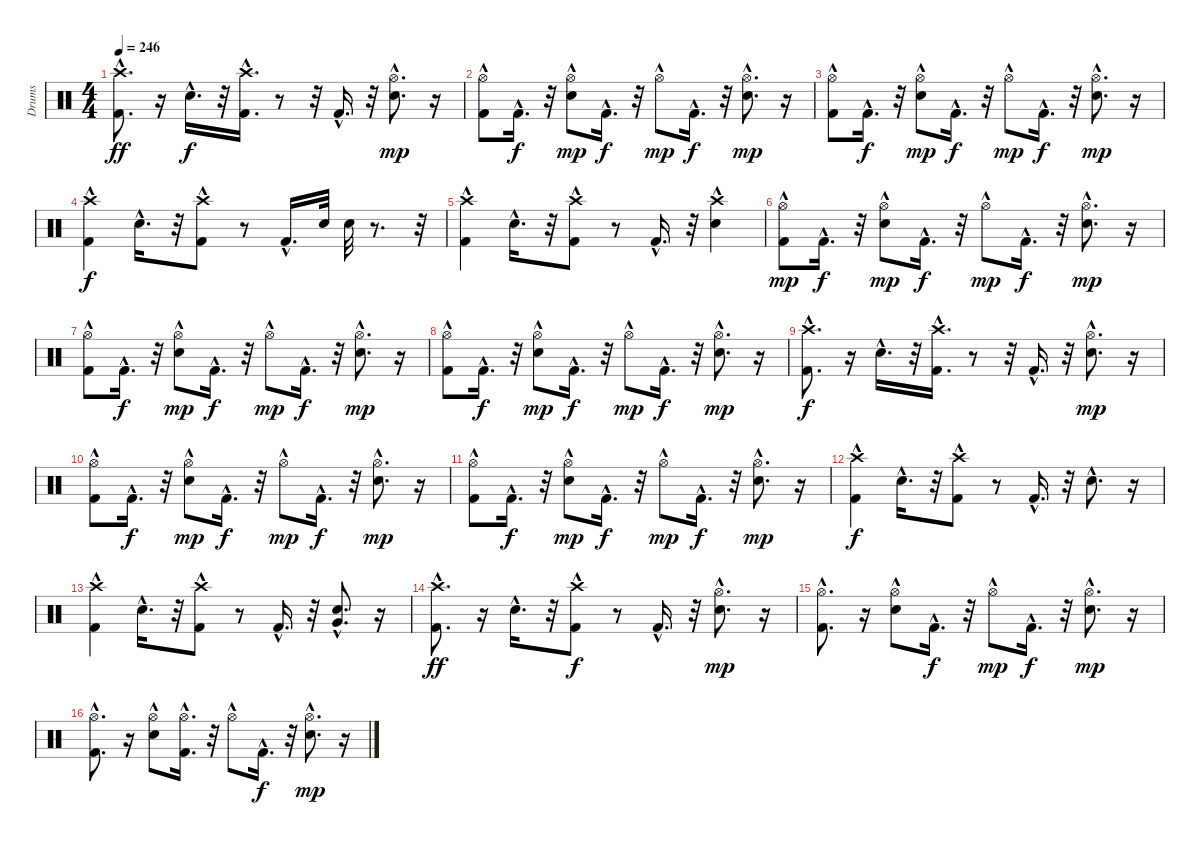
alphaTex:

\track ("Drums" "Drums") {instrument percussion}
\staff {score}
\articulation defaults
\ts (4 4)
\tempo 246
\clef neutral
\ks c
("Kick (hit) 2"{hac} "Crash high (hit)"{hac}).8{d dy ff} r.16 "Electric Snare (hit)"{hac}.16{d dy f} r.32 ("Kick (hit) 2"{hac} "Crash high (hit)"{hac}).16{d} r.8 r.32 "Kick (hit) 2"{hac}.16{d} r.32 ("Electric Snare (hit)"{hac} "Hi-Hat (open)"{hac}).8{d dy mp} r.16 |
("Kick (hit) 2"{hac} "Hi-Hat (open)"{hac}).8 "Kick (hit) 2"{hac}.16{d dy f} r.32 ("Electric Snare (hit)"{hac} "Hi-Hat (open)"{hac}).8{dy mp} "Kick (hit) 2"{hac}.16{d dy f} r.32 "Hi-Hat (open)"{hac}.8{dy mp} "Kick (hit) 2"{hac}.16{d dy f} r.32 ("Electric Snare (hit)"{hac} "Hi-Hat (open)"{hac}).8{d dy mp} r.16 |
("Kick (hit) 2"{hac} "Hi-Hat (open)"{hac}).8 "Kick (hit) 2"{hac}.16{d dy f} r.32 ("Electric Snare (hit)"{hac} "Hi-Hat (open)"{hac}).8{dy mp} "Kick (hit) 2"{hac}.16{d dy f} r.32 "Hi-Hat (open)"{hac}.8{dy mp} "Kick (hit) 2"{hac}.16{d dy f} r.32 ("Electric Snare (hit)"{hac} "Hi-Hat (open)"{hac}).8{d dy mp} r.16 |
("Kick (hit) 2"{hac} "Crash high (hit)").4{dy f} "Electric Snare (hit)"{hac}.16{d} r.32 ("Kick (hit) 2"{hac} "Crash high (hit)").8 r.8 "Kick (hit) 2"{hac}.16{d} "Electric Snare (hit)".32 "Electric Snare (hit)".32 r.8{d} r.32 |
("Kick (hit) 2"{hac} "Crash high (hit)").4 "Electric Snare (hit)"{hac}.16{d} r.32 ("Kick (hit) 2"{hac} "Crash high (hit)").8 r.8 "Kick (hit) 2"{hac}.16{d} r.32 ("Electric Snare (hit)"{hac} "Crash high (hit)").4 |
("Kick (hit) 2"{hac} "Hi-Hat (open)"{hac}).8{dy mp} "Kick (hit) 2"{hac}.16{d dy f} r.32 ("Electric Snare (hit)"{hac} "Hi-Hat (open)"{hac}).8{dy mp} "Kick (hit) 2"{hac}.16{d dy f} r.32 "Hi-Hat (open)"{hac}.8{dy mp} "Kick (hit) 2"{hac}.16{d dy f} r.32 ("Electric Snare (hit)"{hac} "Hi-Hat (open)"{hac}).8{d dy mp} r.16 |
("Kick (hit) 2"{hac} "Hi-Hat (open)"{hac}).8 "Kick (hit) 2"{hac}.16{d dy f} r.32 ("Electric Snare (hit)"{hac} "Hi-Hat (open)"{hac}).8{dy mp} "Kick (hit) 2"{hac}.16{d dy f} r.32 "Hi-Hat (open)"{hac}.8{dy mp} "Kick (hit) 2"{hac}.16{d dy f} r.32 ("Electric Snare (hit)"{hac} "Hi-Hat (open)"{hac}).8{d dy mp} r.16 |
("Kick (hit) 2"{hac} "Hi-Hat (open)"{hac}).8 "Kick (hit) 2"{hac}.16{d dy f} r.32 ("Electric Snare (hit)"{hac} "Hi-Hat (open)"{hac}).8{dy mp} "Kick (hit) 2"{hac}.16{d dy f} r.32 "Hi-Hat (open)"{hac}.8{dy mp} "Kick (hit) 2"{hac}.16{d dy f} r.32 ("Electric Snare (hit)"{hac} "Hi-Hat (open)"{hac}).8{d dy mp} r.16 |
("Kick (hit) 2"{hac} "Crash high (hit)"{hac}).8{d dy f} r.16 "Electric Snare (hit)"{hac}.16{d} r.32 ("Kick (hit) 2"{hac} "Crash high (hit)"{hac}).16{d} r.8 r.32 "Kick (hit) 2"{hac}.16{d} r.32 ("Electric Snare (hit)"{hac} "Hi-Hat (open)"{hac}).8{d dy mp} r.16 |
("Kick (hit) 2"{hac} "Hi-Hat (open)"{hac}).8 "Kick (hit) 2"{hac}.16{d dy f} r.32 ("Electric Snare (hit)"{hac} "Hi-Hat (open)"{hac}).8{dy mp} "Kick (hit) 2"{hac}.16{d dy f} r.32 "Hi-Hat (open)"{hac}.8{dy mp} "Kick (hit) 2"{hac}.16{d dy f} r.32 ("Electric Snare (hit)"{hac} "Hi-Hat (open)"{hac}).8{d dy mp} r.16 |
("Kick (hit) 2"{hac} "Hi-Hat (open)"{hac}).8 "Kick (hit) 2"{hac}.16{d dy f} r.32 ("Electric Snare (hit)"{hac} "Hi-Hat (open)"{hac}).8{dy mp} "Kick (hit) 2"{hac}.16{d dy f} r.32 "Hi-Hat (open)"{hac}.8{dy mp} "Kick (hit) 2"{hac}.16{d dy f} r.32 ("Electric Snare (hit)"{hac} "Hi-Hat (open)"{hac}).8{d dy mp} r.16 |
("Kick (hit) 2"{hac} "Crash high (hit)").4{dy f} "Electric Snare (hit)"{hac}.16{d} r.32 ("Kick (hit) 2"{hac} "Crash high (hit)").8 r.8 "Kick (hit) 2"{hac}.16{d} r.32 "Electric Snare (hit)"{hac}.8{d} r.16 |
("Kick (hit) 2"{hac} "Crash high (hit)").4 "Electric Snare (hit)"{hac}.16{d} r.32 ("Kick (hit) 2"{hac} "Crash high (hit)").8 r.8 "Kick (hit) 2"{hac}.16{d} r.32 ("Electric Snare (hit)"{hac} "Very Low Tom (hit)"{hac}).8{d} r.16 |
("Kick (hit) 2"{hac} "Crash high (hit)"{hac}).8{d dy ff} r.16 "Electric Snare (hit)"{hac}.16{d} r.32 ("Kick (hit) 2"{hac} "Crash high (hit)").8{dy f} r.8 "Kick (hit) 2"{hac}.16{d} r.32 ("Electric Snare (hit)"{hac} "Hi-Hat (open)"{hac}).8{d dy mp} r.16 |
("Kick (hit) 2"{hac} "Hi-Hat (open)"{hac}).8{d} r.16 ("Electric Snare (hit)"{hac} "Hi-Hat (open)"{hac}).8 "Kick (hit) 2"{hac}.16{d dy f} r.32 "Hi-Hat (open)"{hac}.8{dy mp} "Kick (hit) 2"{hac}.16{d dy f} r.32 ("Electric Snare (hit)"{hac} "Hi-Hat (open)"{hac}).8{d dy mp} r.16 |
("Kick (hit) 2"{hac} "Hi-Hat (open)"{hac}).8{d} r.16 ("Electric Snare (hit)"{hac} "Hi-Hat (open)"{hac}).8 ("Kick (hit) 2"{hac} "Hi-Hat (open)"{hac}).16{d} r.32 "Hi-Hat (open)"{hac}.8 "Kick (hit) 2"{hac}.16{d dy f} r.32 ("Electric Snare (hit)"{hac} "Hi-Hat (open)"{hac}).8{d dy mp} r.16
